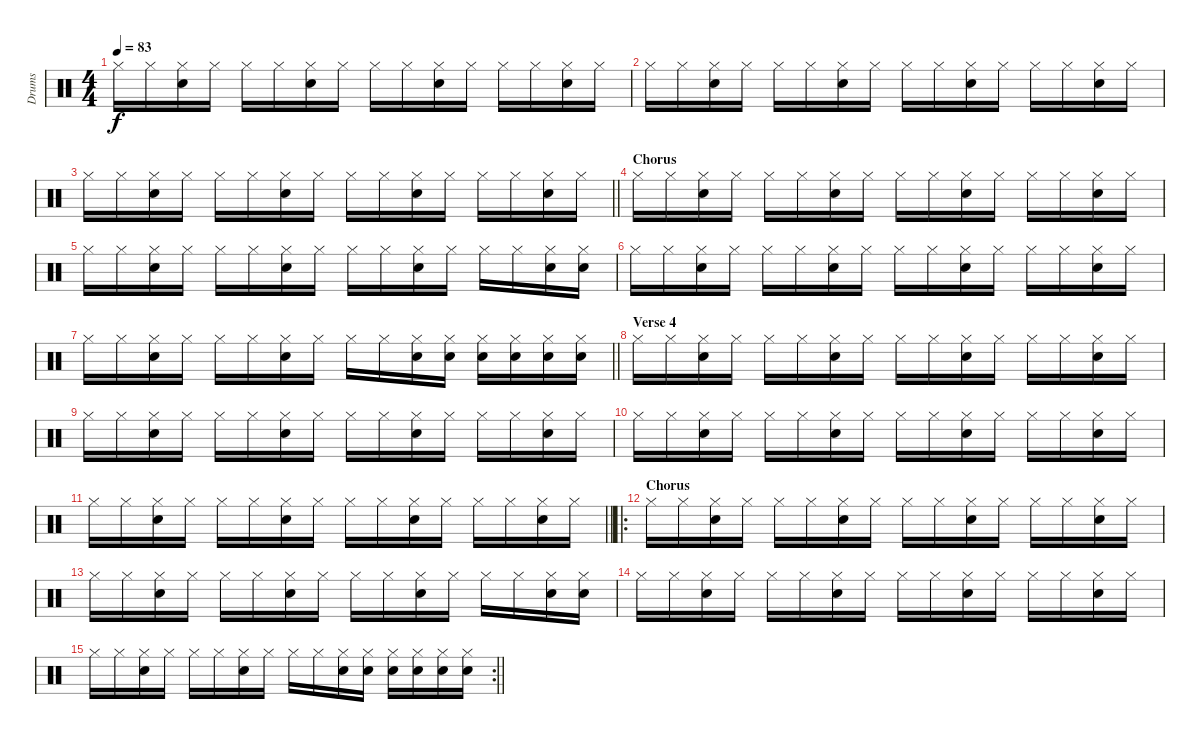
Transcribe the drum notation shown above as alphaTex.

\track ("Drums" "Drums") {instrument percussion}
\staff {score}
\articulation defaults
\ts (4 4)
\tempo 83
\clef neutral
\ks c "Hi-Hat (closed)".16{dy f} "Hi-Hat (closed)".16
("Hi-Hat (closed)" "Electric Snare (hit)").16 "Hi-Hat (closed)".16 "Hi-Hat (closed)".16 "Hi-Hat (closed)".16 ("Hi-Hat (closed)" "Electric Snare (hit)").16 "Hi-Hat (closed)".16 "Hi-Hat (closed)".16 "Hi-Hat (closed)".16 ("Hi-Hat (closed)" "Electric Snare (hit)").16 "Hi-Hat (closed)".16 "Hi-Hat (closed)".16 "Hi-Hat (closed)".16 ("Hi-Hat (closed)" "Electric Snare (hit)").16 "Hi-Hat (closed)".16 |
"Hi-Hat (closed)".16 "Hi-Hat (closed)".16 ("Hi-Hat (closed)" "Electric Snare (hit)").16 "Hi-Hat (closed)".16 "Hi-Hat (closed)".16 "Hi-Hat (closed)".16 ("Hi-Hat (closed)" "Electric Snare (hit)").16 "Hi-Hat (closed)".16 "Hi-Hat (closed)".16 "Hi-Hat (closed)".16 ("Hi-Hat (closed)" "Electric Snare (hit)").16 "Hi-Hat (closed)".16 "Hi-Hat (closed)".16 "Hi-Hat (closed)".16 ("Hi-Hat (closed)" "Electric Snare (hit)").16 "Hi-Hat (closed)".16 |
\barLineRight lightlight "Hi-Hat (closed)".16 "Hi-Hat (closed)".16
("Hi-Hat (closed)" "Electric Snare (hit)").16 "Hi-Hat (closed)".16 "Hi-Hat (closed)".16 "Hi-Hat (closed)".16 ("Hi-Hat (closed)" "Electric Snare (hit)").16 "Hi-Hat (closed)".16 "Hi-Hat (closed)".16 "Hi-Hat (closed)".16 ("Hi-Hat (closed)" "Electric Snare (hit)").16 "Hi-Hat (closed)".16 "Hi-Hat (closed)".16 "Hi-Hat (closed)".16 ("Hi-Hat (closed)" "Electric Snare (hit)").16 "Hi-Hat (closed)".16 |
\section ("" "Chorus")
"Hi-Hat (closed)".16 "Hi-Hat (closed)".16 ("Hi-Hat (closed)" "Electric Snare (hit)").16 "Hi-Hat (closed)".16 "Hi-Hat (closed)".16 "Hi-Hat (closed)".16 ("Hi-Hat (closed)" "Electric Snare (hit)").16 "Hi-Hat (closed)".16 "Hi-Hat (closed)".16 "Hi-Hat (closed)".16 ("Hi-Hat (closed)" "Electric Snare (hit)").16 "Hi-Hat (closed)".16 "Hi-Hat (closed)".16 "Hi-Hat (closed)".16 ("Hi-Hat (closed)" "Electric Snare (hit)").16 "Hi-Hat (closed)".16 |
"Hi-Hat (closed)".16 "Hi-Hat (closed)".16 ("Hi-Hat (closed)" "Electric Snare (hit)").16 "Hi-Hat (closed)".16 "Hi-Hat (closed)".16 "Hi-Hat (closed)".16 ("Hi-Hat (closed)" "Electric Snare (hit)").16 "Hi-Hat (closed)".16 "Hi-Hat (closed)".16 "Hi-Hat (closed)".16 ("Hi-Hat (closed)" "Electric Snare (hit)").16 "Hi-Hat (closed)".16 "Hi-Hat (closed)".16 "Hi-Hat (closed)".16 ("Hi-Hat (closed)" "Electric Snare (hit)").16 ("Hi-Hat (closed)" "Electric Snare (hit)").16 |
"Hi-Hat (closed)".16 "Hi-Hat (closed)".16 ("Hi-Hat (closed)" "Electric Snare (hit)").16 "Hi-Hat (closed)".16 "Hi-Hat (closed)".16 "Hi-Hat (closed)".16 ("Hi-Hat (closed)" "Electric Snare (hit)").16 "Hi-Hat (closed)".16 "Hi-Hat (closed)".16 "Hi-Hat (closed)".16 ("Hi-Hat (closed)" "Electric Snare (hit)").16 "Hi-Hat (closed)".16 "Hi-Hat (closed)".16 "Hi-Hat (closed)".16 ("Hi-Hat (closed)" "Electric Snare (hit)").16 "Hi-Hat (closed)".16 |
\barLineRight lightlight "Hi-Hat (closed)".16 "Hi-Hat (closed)".16
("Hi-Hat (closed)" "Electric Snare (hit)").16 "Hi-Hat (closed)".16 "Hi-Hat (closed)".16 "Hi-Hat (closed)".16 ("Hi-Hat (closed)" "Electric Snare (hit)").16 "Hi-Hat (closed)".16 "Hi-Hat (closed)".16 "Hi-Hat (closed)".16 ("Hi-Hat (closed)" "Electric Snare (hit)").16 ("Hi-Hat (closed)" "Electric Snare (hit)").16 ("Hi-Hat (closed)" "Electric Snare (hit)").16 ("Hi-Hat (closed)" "Electric Snare (hit)").16 ("Hi-Hat (closed)" "Electric Snare (hit)").16 ("Hi-Hat (closed)" "Electric Snare (hit)").16 |
\section ("" "Verse 4")
"Hi-Hat (closed)".16 "Hi-Hat (closed)".16 ("Hi-Hat (closed)" "Electric Snare (hit)").16 "Hi-Hat (closed)".16 "Hi-Hat (closed)".16 "Hi-Hat (closed)".16 ("Hi-Hat (closed)" "Electric Snare (hit)").16 "Hi-Hat (closed)".16 "Hi-Hat (closed)".16 "Hi-Hat (closed)".16 ("Hi-Hat (closed)" "Electric Snare (hit)").16 "Hi-Hat (closed)".16 "Hi-Hat (closed)".16 "Hi-Hat (closed)".16 ("Hi-Hat (closed)" "Electric Snare (hit)").16 "Hi-Hat (closed)".16 |
"Hi-Hat (closed)".16 "Hi-Hat (closed)".16 ("Hi-Hat (closed)" "Electric Snare (hit)").16 "Hi-Hat (closed)".16 "Hi-Hat (closed)".16 "Hi-Hat (closed)".16 ("Hi-Hat (closed)" "Electric Snare (hit)").16 "Hi-Hat (closed)".16 "Hi-Hat (closed)".16 "Hi-Hat (closed)".16 ("Hi-Hat (closed)" "Electric Snare (hit)").16 "Hi-Hat (closed)".16 "Hi-Hat (closed)".16 "Hi-Hat (closed)".16 ("Hi-Hat (closed)" "Electric Snare (hit)").16 "Hi-Hat (closed)".16 |
"Hi-Hat (closed)".16 "Hi-Hat (closed)".16 ("Hi-Hat (closed)" "Electric Snare (hit)").16 "Hi-Hat (closed)".16 "Hi-Hat (closed)".16 "Hi-Hat (closed)".16 ("Hi-Hat (closed)" "Electric Snare (hit)").16 "Hi-Hat (closed)".16 "Hi-Hat (closed)".16 "Hi-Hat (closed)".16 ("Hi-Hat (closed)" "Electric Snare (hit)").16 "Hi-Hat (closed)".16 "Hi-Hat (closed)".16 "Hi-Hat (closed)".16 ("Hi-Hat (closed)" "Electric Snare (hit)").16 "Hi-Hat (closed)".16 |
\barLineRight lightlight "Hi-Hat (closed)".16 "Hi-Hat (closed)".16
("Hi-Hat (closed)" "Electric Snare (hit)").16 "Hi-Hat (closed)".16 "Hi-Hat (closed)".16 "Hi-Hat (closed)".16 ("Hi-Hat (closed)" "Electric Snare (hit)").16 "Hi-Hat (closed)".16 "Hi-Hat (closed)".16 "Hi-Hat (closed)".16 ("Hi-Hat (closed)" "Electric Snare (hit)").16 "Hi-Hat (closed)".16 "Hi-Hat (closed)".16 "Hi-Hat (closed)".16 ("Hi-Hat (closed)" "Electric Snare (hit)").16 "Hi-Hat (closed)".16 |
\ro
\section ("" "Chorus")
"Hi-Hat (closed)".16 "Hi-Hat (closed)".16 ("Hi-Hat (closed)" "Electric Snare (hit)").16 "Hi-Hat (closed)".16 "Hi-Hat (closed)".16 "Hi-Hat (closed)".16 ("Hi-Hat (closed)" "Electric Snare (hit)").16 "Hi-Hat (closed)".16 "Hi-Hat (closed)".16 "Hi-Hat (closed)".16 ("Hi-Hat (closed)" "Electric Snare (hit)").16 "Hi-Hat (closed)".16 "Hi-Hat (closed)".16 "Hi-Hat (closed)".16 ("Hi-Hat (closed)" "Electric Snare (hit)").16 "Hi-Hat (closed)".16 |
"Hi-Hat (closed)".16 "Hi-Hat (closed)".16 ("Hi-Hat (closed)" "Electric Snare (hit)").16 "Hi-Hat (closed)".16 "Hi-Hat (closed)".16 "Hi-Hat (closed)".16 ("Hi-Hat (closed)" "Electric Snare (hit)").16 "Hi-Hat (closed)".16 "Hi-Hat (closed)".16 "Hi-Hat (closed)".16 ("Hi-Hat (closed)" "Electric Snare (hit)").16 "Hi-Hat (closed)".16 "Hi-Hat (closed)".16 "Hi-Hat (closed)".16 ("Hi-Hat (closed)" "Electric Snare (hit)").16 ("Hi-Hat (closed)" "Electric Snare (hit)").16 |
"Hi-Hat (closed)".16 "Hi-Hat (closed)".16 ("Hi-Hat (closed)" "Electric Snare (hit)").16 "Hi-Hat (closed)".16 "Hi-Hat (closed)".16 "Hi-Hat (closed)".16 ("Hi-Hat (closed)" "Electric Snare (hit)").16 "Hi-Hat (closed)".16 "Hi-Hat (closed)".16 "Hi-Hat (closed)".16 ("Hi-Hat (closed)" "Electric Snare (hit)").16 "Hi-Hat (closed)".16 "Hi-Hat (closed)".16 "Hi-Hat (closed)".16 ("Hi-Hat (closed)" "Electric Snare (hit)").16 "Hi-Hat (closed)".16 |
\rc 2
\barLineRight lightlight "Hi-Hat (closed)".16 "Hi-Hat (closed)".16
("Hi-Hat (closed)" "Electric Snare (hit)").16 "Hi-Hat (closed)".16 "Hi-Hat (closed)".16 "Hi-Hat (closed)".16 ("Hi-Hat (closed)" "Electric Snare (hit)").16 "Hi-Hat (closed)".16 "Hi-Hat (closed)".16 "Hi-Hat (closed)".16 ("Hi-Hat (closed)" "Electric Snare (hit)").16 ("Hi-Hat (closed)" "Electric Snare (hit)").16 ("Hi-Hat (closed)" "Electric Snare (hit)").16 ("Hi-Hat (closed)" "Electric Snare (hit)").16 ("Hi-Hat (closed)" "Electric Snare (hit)").16 ("Hi-Hat (closed)" "Electric Snare (hit)").16
